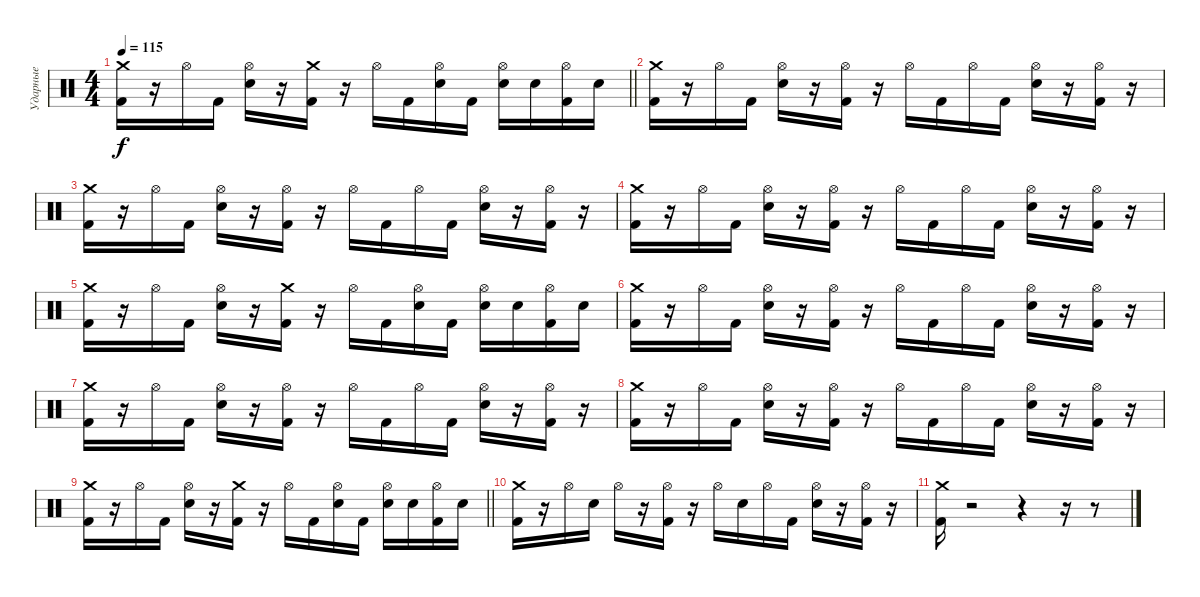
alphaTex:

\track ("Ударные" "Ударные") {instrument percussion}
\staff {score}
\articulation defaults
\ts (4 4)
\tempo 115
\clef neutral
\barLineRight lightlight
\ks c
("Crash medium (hit)" "Kick (hit) 2").16{dy f} r.16 "Hi-Hat (open)".16 "Kick (hit) 2".16 ("Hi-Hat (open)" "Electric Snare (hit)").16 r.16 ("Crash medium (hit)" "Kick (hit) 2").16 r.16 "Hi-Hat (open)".16 "Kick (hit) 2".16 ("Hi-Hat (open)" "Electric Snare (hit)").16 "Kick (hit) 2".16 ("Hi-Hat (open)" "Electric Snare (hit)").16 "Electric Snare (hit)".16 ("Hi-Hat (open)" "Kick (hit) 2").16 "Electric Snare (hit)".16 |
("Crash medium (hit)" "Kick (hit) 2").16 r.16 "Hi-Hat (open)".16 "Kick (hit) 2".16 ("Hi-Hat (open)" "Electric Snare (hit)").16 r.16 ("Hi-Hat (open)" "Kick (hit) 2").16 r.16 "Hi-Hat (open)".16 "Kick (hit) 2".16 "Hi-Hat (open)".16 "Kick (hit) 2".16 ("Hi-Hat (open)" "Electric Snare (hit)").16 r.16 ("Hi-Hat (open)" "Kick (hit) 2").16 r.16 |
("Crash medium (hit)" "Kick (hit) 2").16 r.16 "Hi-Hat (open)".16 "Kick (hit) 2".16 ("Hi-Hat (open)" "Electric Snare (hit)").16 r.16 ("Hi-Hat (open)" "Kick (hit) 2").16 r.16 "Hi-Hat (open)".16 "Kick (hit) 2".16 "Hi-Hat (open)".16 "Kick (hit) 2".16 ("Hi-Hat (open)" "Electric Snare (hit)").16 r.16 ("Hi-Hat (open)" "Kick (hit) 2").16 r.16 |
("Crash medium (hit)" "Kick (hit) 2").16 r.16 "Hi-Hat (open)".16 "Kick (hit) 2".16 ("Hi-Hat (open)" "Electric Snare (hit)").16 r.16 ("Hi-Hat (open)" "Kick (hit) 2").16 r.16 "Hi-Hat (open)".16 "Kick (hit) 2".16 "Hi-Hat (open)".16 "Kick (hit) 2".16 ("Hi-Hat (open)" "Electric Snare (hit)").16 r.16 ("Hi-Hat (open)" "Kick (hit) 2").16 r.16 |
("Crash medium (hit)" "Kick (hit) 2").16 r.16 "Hi-Hat (open)".16 "Kick (hit) 2".16 ("Hi-Hat (open)" "Electric Snare (hit)").16 r.16 ("Crash medium (hit)" "Kick (hit) 2").16 r.16 "Hi-Hat (open)".16 "Kick (hit) 2".16 ("Hi-Hat (open)" "Electric Snare (hit)").16 "Kick (hit) 2".16 ("Hi-Hat (open)" "Electric Snare (hit)").16 "Electric Snare (hit)".16 ("Hi-Hat (open)" "Kick (hit) 2").16 "Electric Snare (hit)".16 |
("Crash medium (hit)" "Kick (hit) 2").16 r.16 "Hi-Hat (open)".16 "Kick (hit) 2".16 ("Hi-Hat (open)" "Electric Snare (hit)").16 r.16 ("Hi-Hat (open)" "Kick (hit) 2").16 r.16 "Hi-Hat (open)".16 "Kick (hit) 2".16 "Hi-Hat (open)".16 "Kick (hit) 2".16 ("Hi-Hat (open)" "Electric Snare (hit)").16 r.16 ("Hi-Hat (open)" "Kick (hit) 2").16 r.16 |
("Crash medium (hit)" "Kick (hit) 2").16 r.16 "Hi-Hat (open)".16 "Kick (hit) 2".16 ("Hi-Hat (open)" "Electric Snare (hit)").16 r.16 ("Hi-Hat (open)" "Kick (hit) 2").16 r.16 "Hi-Hat (open)".16 "Kick (hit) 2".16 "Hi-Hat (open)".16 "Kick (hit) 2".16 ("Hi-Hat (open)" "Electric Snare (hit)").16 r.16 ("Hi-Hat (open)" "Kick (hit) 2").16 r.16 |
("Crash medium (hit)" "Kick (hit) 2").16 r.16 "Hi-Hat (open)".16 "Kick (hit) 2".16 ("Hi-Hat (open)" "Electric Snare (hit)").16 r.16 ("Hi-Hat (open)" "Kick (hit) 2").16 r.16 "Hi-Hat (open)".16 "Kick (hit) 2".16 "Hi-Hat (open)".16 "Kick (hit) 2".16 ("Hi-Hat (open)" "Electric Snare (hit)").16 r.16 ("Hi-Hat (open)" "Kick (hit) 2").16 r.16 |
\barLineRight lightlight
("Crash medium (hit)" "Kick (hit) 2").16 r.16 "Hi-Hat (open)".16 "Kick (hit) 2".16 ("Hi-Hat (open)" "Electric Snare (hit)").16 r.16 ("Crash medium (hit)" "Kick (hit) 2").16 r.16 "Hi-Hat (open)".16 "Kick (hit) 2".16 ("Hi-Hat (open)" "Electric Snare (hit)").16 "Kick (hit) 2".16 ("Hi-Hat (open)" "Electric Snare (hit)").16 "Electric Snare (hit)".16 ("Hi-Hat (open)" "Kick (hit) 2").16 "Electric Snare (hit)".16 |
("Crash medium (hit)" "Kick (hit) 2").16 r.16 "Hi-Hat (open)".16 "Electric Snare (hit)".16 "Hi-Hat (open)".16 r.16 ("Hi-Hat (open)" "Kick (hit) 2").16 r.16 "Hi-Hat (open)".16 "Electric Snare (hit)".16 "Hi-Hat (open)".16 "Kick (hit) 2".16 ("Hi-Hat (open)" "Electric Snare (hit)").16 r.16 ("Hi-Hat (open)" "Kick (hit) 2").16 r.16 |
("Crash medium (hit)" "Kick (hit) 2").16 r.2 r.4 r.16 r.8
